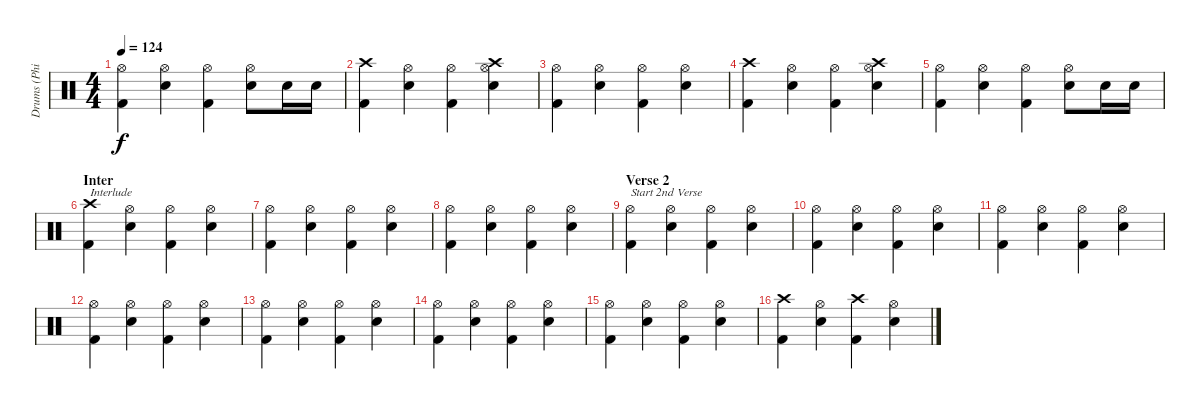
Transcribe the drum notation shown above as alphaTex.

\track ("Drums (Phil R.)" "Drums (Phi") {instrument percussion}
\staff {score}
\articulation defaults
\ts (4 4)
\tempo 124
\clef neutral
\ks c
("Hi-Hat (open)" "Kick (hit) 2").4{dy f} ("Snare (hit) 2" "Hi-Hat (open)").4 ("Hi-Hat (open)" "Kick (hit) 2").4 ("Snare (hit) 2" "Hi-Hat (open)").8 "Snare (hit) 2".16 "Snare (hit) 2".16 |
("Crash high (hit)" "Kick (hit) 2").4 ("Snare (hit) 2" "Hi-Hat (open)").4 ("Hi-Hat (open)" "Kick (hit) 2").4 ("Crash high (hit)" "Snare (hit) 2" "Hi-Hat (open)").4 |
("Hi-Hat (open)" "Kick (hit) 2").4 ("Snare (hit) 2" "Hi-Hat (open)").4 ("Hi-Hat (open)" "Kick (hit) 2").4 ("Snare (hit) 2" "Hi-Hat (open)").4 |
("Crash high (hit)" "Kick (hit) 2").4 ("Snare (hit) 2" "Hi-Hat (open)").4 ("Hi-Hat (open)" "Kick (hit) 2").4 ("Crash high (hit)" "Snare (hit) 2" "Hi-Hat (open)").4 |
("Hi-Hat (open)" "Kick (hit) 2").4 ("Snare (hit) 2" "Hi-Hat (open)").4 ("Hi-Hat (open)" "Kick (hit) 2").4 ("Snare (hit) 2" "Hi-Hat (open)").8 "Snare (hit) 2".16 "Snare (hit) 2".16 |
\section ("" "Inter")
("Crash high (hit)" "Kick (hit) 2").4{txt "Interlude"} ("Snare (hit) 2" "Hi-Hat (open)").4 ("Hi-Hat (open)" "Kick (hit) 2").4 ("Snare (hit) 2" "Hi-Hat (open)").4 |
("Hi-Hat (open)" "Kick (hit) 2").4 ("Snare (hit) 2" "Hi-Hat (open)").4 ("Hi-Hat (open)" "Kick (hit) 2").4 ("Snare (hit) 2" "Hi-Hat (open)").4 |
("Hi-Hat (open)" "Kick (hit) 2").4 ("Snare (hit) 2" "Hi-Hat (open)").4 ("Hi-Hat (open)" "Kick (hit) 2").4 ("Snare (hit) 2" "Hi-Hat (open)").4 |
\section ("" "Verse 2")
("Hi-Hat (open)" "Kick (hit) 2").4{txt "Start 2nd Verse"} ("Snare (hit) 2" "Hi-Hat (open)").4 ("Hi-Hat (open)" "Kick (hit) 2").4 ("Snare (hit) 2" "Hi-Hat (open)").4 |
("Hi-Hat (open)" "Kick (hit) 2").4 ("Snare (hit) 2" "Hi-Hat (open)").4 ("Hi-Hat (open)" "Kick (hit) 2").4 ("Snare (hit) 2" "Hi-Hat (open)").4 |
("Hi-Hat (open)" "Kick (hit) 2").4 ("Snare (hit) 2" "Hi-Hat (open)").4 ("Hi-Hat (open)" "Kick (hit) 2").4 ("Snare (hit) 2" "Hi-Hat (open)").4 |
("Hi-Hat (open)" "Kick (hit) 2").4 ("Snare (hit) 2" "Hi-Hat (open)").4 ("Hi-Hat (open)" "Kick (hit) 2").4 ("Snare (hit) 2" "Hi-Hat (open)").4 |
("Hi-Hat (open)" "Kick (hit) 2").4 ("Snare (hit) 2" "Hi-Hat (open)").4 ("Hi-Hat (open)" "Kick (hit) 2").4 ("Snare (hit) 2" "Hi-Hat (open)").4 |
("Hi-Hat (open)" "Kick (hit) 2").4 ("Snare (hit) 2" "Hi-Hat (open)").4 ("Hi-Hat (open)" "Kick (hit) 2").4 ("Snare (hit) 2" "Hi-Hat (open)").4 |
("Hi-Hat (open)" "Kick (hit) 2").4 ("Snare (hit) 2" "Hi-Hat (open)").4 ("Hi-Hat (open)" "Kick (hit) 2").4 ("Snare (hit) 2" "Hi-Hat (open)").4 |
("Crash high (hit)" "Kick (hit) 2").4 ("Snare (hit) 2" "Hi-Hat (open)").4 ("Crash high (hit)" "Kick (hit) 2").4 ("Snare (hit) 2" "Hi-Hat (open)").4
